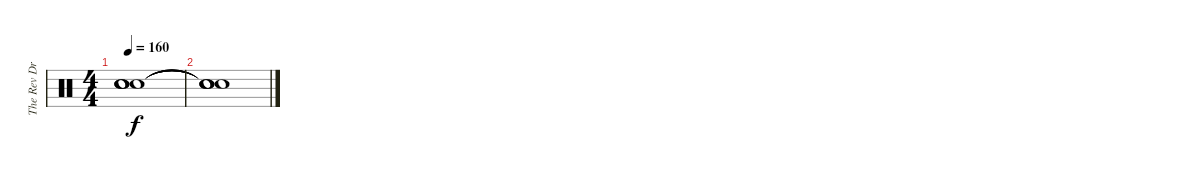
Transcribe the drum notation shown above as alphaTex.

\track ("The Rev Drum" "The Rev Dr") {instrument percussion}
\staff {score}
\articulation defaults
\ts (4 4)
\tempo 160
\clef neutral
\ks c
("Snare (hit)"{t} "Snare (hit)"{t} "Snare (hit)"{t} "Snare (hit)"{t}).1{dy f} |
("Snare (hit)"{t} "Snare (hit)"{t} "Snare (hit)"{t} "Snare (hit)"{t}).1
